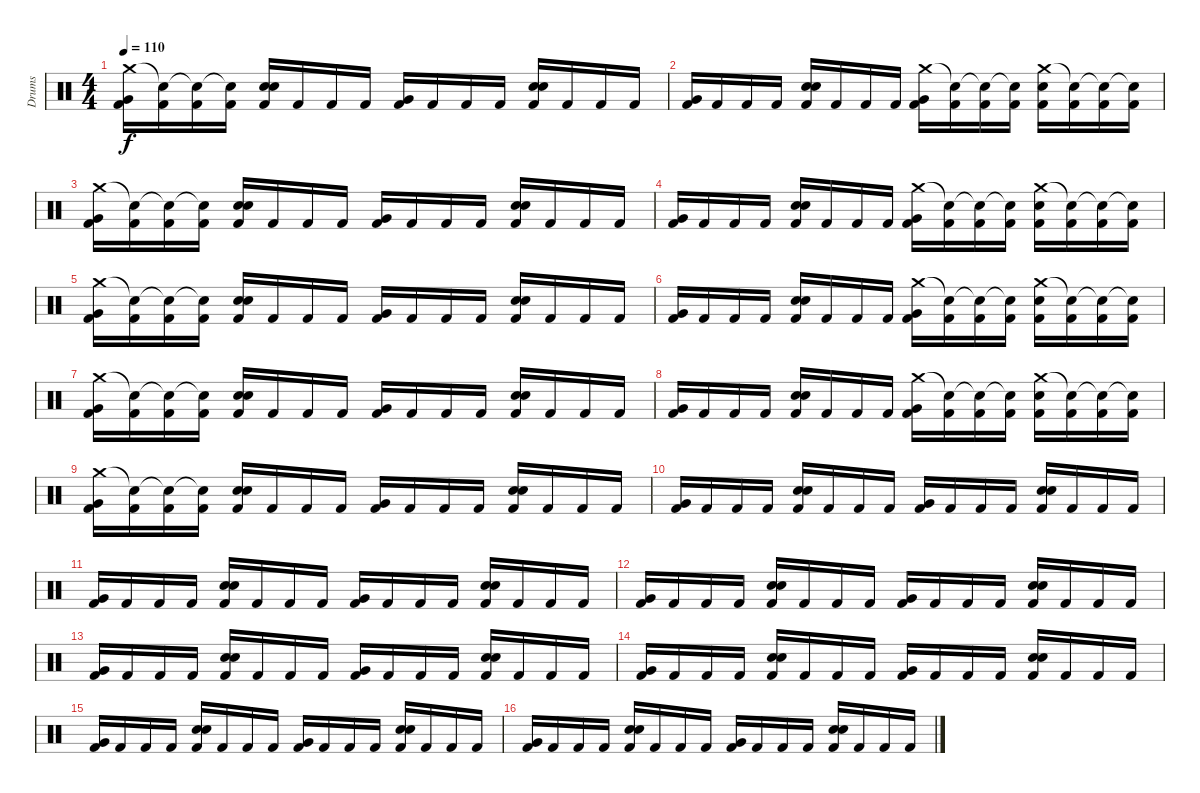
\track ("Drums" "Drums") {instrument percussion}
\staff {score}
\articulation defaults
\ts (4 4)
\tempo 110
\clef neutral
\ks c
("Crash medium (hit)" "Very Low Tom (hit)" "Kick (hit) 2").16{dy f} ("Snare (hit)"{t} "Kick (hit) 2").16 ("Snare (hit)"{t} "Kick (hit) 2").16 ("Snare (hit)"{t} "Kick (hit) 2").16 ("Electric Snare (hit)" "Electric Snare (hit)" "Kick (hit) 2").16 "Kick (hit) 2".16 "Kick (hit) 2".16 "Kick (hit) 2".16 ("Very Low Tom (hit)" "Kick (hit) 2").16 "Kick (hit) 2".16 "Kick (hit) 2".16 "Kick (hit) 2".16 ("Electric Snare (hit)" "Electric Snare (hit)" "Kick (hit) 2").16 "Kick (hit) 2".16 "Kick (hit) 2".16 "Kick (hit) 2".16 |
("Very Low Tom (hit)" "Kick (hit) 2").16 "Kick (hit) 2".16 "Kick (hit) 2".16 "Kick (hit) 2".16 ("Electric Snare (hit)" "Electric Snare (hit)" "Kick (hit) 2").16 "Kick (hit) 2".16 "Kick (hit) 2".16 "Kick (hit) 2".16 ("Crash medium (hit)" "Very Low Tom (hit)" "Kick (hit) 2").16 ("Snare (hit)"{t} "Kick (hit) 2").16 ("Snare (hit)"{t} "Kick (hit) 2").16 ("Snare (hit)"{t} "Kick (hit) 2").16 ("Crash medium (hit)" "Electric Snare (hit)" "Kick (hit) 2").16 ("Snare (hit)"{t} "Kick (hit) 2").16 ("Snare (hit)"{t} "Kick (hit) 2").16 ("Snare (hit)"{t} "Kick (hit) 2").16 |
("Crash medium (hit)" "Very Low Tom (hit)" "Kick (hit) 2").16 ("Snare (hit)"{t} "Kick (hit) 2").16 ("Snare (hit)"{t} "Kick (hit) 2").16 ("Snare (hit)"{t} "Kick (hit) 2").16 ("Electric Snare (hit)" "Electric Snare (hit)" "Kick (hit) 2").16 "Kick (hit) 2".16 "Kick (hit) 2".16 "Kick (hit) 2".16 ("Very Low Tom (hit)" "Kick (hit) 2").16 "Kick (hit) 2".16 "Kick (hit) 2".16 "Kick (hit) 2".16 ("Electric Snare (hit)" "Electric Snare (hit)" "Kick (hit) 2").16 "Kick (hit) 2".16 "Kick (hit) 2".16 "Kick (hit) 2".16 |
("Very Low Tom (hit)" "Kick (hit) 2").16 "Kick (hit) 2".16 "Kick (hit) 2".16 "Kick (hit) 2".16 ("Electric Snare (hit)" "Electric Snare (hit)" "Kick (hit) 2").16 "Kick (hit) 2".16 "Kick (hit) 2".16 "Kick (hit) 2".16 ("Crash medium (hit)" "Very Low Tom (hit)" "Kick (hit) 2").16 ("Snare (hit)"{t} "Kick (hit) 2").16 ("Snare (hit)"{t} "Kick (hit) 2").16 ("Snare (hit)"{t} "Kick (hit) 2").16 ("Crash medium (hit)" "Electric Snare (hit)" "Kick (hit) 2").16 ("Snare (hit)"{t} "Kick (hit) 2").16 ("Snare (hit)"{t} "Kick (hit) 2").16 ("Snare (hit)"{t} "Kick (hit) 2").16 |
("Crash medium (hit)" "Very Low Tom (hit)" "Kick (hit) 2").16 ("Snare (hit)"{t} "Kick (hit) 2").16 ("Snare (hit)"{t} "Kick (hit) 2").16 ("Snare (hit)"{t} "Kick (hit) 2").16 ("Electric Snare (hit)" "Electric Snare (hit)" "Kick (hit) 2").16 "Kick (hit) 2".16 "Kick (hit) 2".16 "Kick (hit) 2".16 ("Very Low Tom (hit)" "Kick (hit) 2").16 "Kick (hit) 2".16 "Kick (hit) 2".16 "Kick (hit) 2".16 ("Electric Snare (hit)" "Electric Snare (hit)" "Kick (hit) 2").16 "Kick (hit) 2".16 "Kick (hit) 2".16 "Kick (hit) 2".16 |
("Very Low Tom (hit)" "Kick (hit) 2").16 "Kick (hit) 2".16 "Kick (hit) 2".16 "Kick (hit) 2".16 ("Electric Snare (hit)" "Electric Snare (hit)" "Kick (hit) 2").16 "Kick (hit) 2".16 "Kick (hit) 2".16 "Kick (hit) 2".16 ("Crash medium (hit)" "Very Low Tom (hit)" "Kick (hit) 2").16 ("Snare (hit)"{t} "Kick (hit) 2").16 ("Snare (hit)"{t} "Kick (hit) 2").16 ("Snare (hit)"{t} "Kick (hit) 2").16 ("Crash medium (hit)" "Electric Snare (hit)" "Kick (hit) 2").16 ("Snare (hit)"{t} "Kick (hit) 2").16 ("Snare (hit)"{t} "Kick (hit) 2").16 ("Snare (hit)"{t} "Kick (hit) 2").16 |
("Crash medium (hit)" "Very Low Tom (hit)" "Kick (hit) 2").16 ("Snare (hit)"{t} "Kick (hit) 2").16 ("Snare (hit)"{t} "Kick (hit) 2").16 ("Snare (hit)"{t} "Kick (hit) 2").16 ("Electric Snare (hit)" "Electric Snare (hit)" "Kick (hit) 2").16 "Kick (hit) 2".16 "Kick (hit) 2".16 "Kick (hit) 2".16 ("Very Low Tom (hit)" "Kick (hit) 2").16 "Kick (hit) 2".16 "Kick (hit) 2".16 "Kick (hit) 2".16 ("Electric Snare (hit)" "Electric Snare (hit)" "Kick (hit) 2").16 "Kick (hit) 2".16 "Kick (hit) 2".16 "Kick (hit) 2".16 |
("Very Low Tom (hit)" "Kick (hit) 2").16 "Kick (hit) 2".16 "Kick (hit) 2".16 "Kick (hit) 2".16 ("Electric Snare (hit)" "Electric Snare (hit)" "Kick (hit) 2").16 "Kick (hit) 2".16 "Kick (hit) 2".16 "Kick (hit) 2".16 ("Crash medium (hit)" "Very Low Tom (hit)" "Kick (hit) 2").16 ("Snare (hit)"{t} "Kick (hit) 2").16 ("Snare (hit)"{t} "Kick (hit) 2").16 ("Snare (hit)"{t} "Kick (hit) 2").16 ("Crash medium (hit)" "Electric Snare (hit)" "Kick (hit) 2").16 ("Snare (hit)"{t} "Kick (hit) 2").16 ("Snare (hit)"{t} "Kick (hit) 2").16 ("Snare (hit)"{t} "Kick (hit) 2").16 |
("Crash medium (hit)" "Very Low Tom (hit)" "Kick (hit) 2").16 ("Snare (hit)"{t} "Kick (hit) 2").16 ("Snare (hit)"{t} "Kick (hit) 2").16 ("Snare (hit)"{t} "Kick (hit) 2").16 ("Electric Snare (hit)" "Electric Snare (hit)" "Kick (hit) 2").16 "Kick (hit) 2".16 "Kick (hit) 2".16 "Kick (hit) 2".16 ("Very Low Tom (hit)" "Kick (hit) 2").16 "Kick (hit) 2".16 "Kick (hit) 2".16 "Kick (hit) 2".16 ("Electric Snare (hit)" "Electric Snare (hit)" "Kick (hit) 2").16 "Kick (hit) 2".16 "Kick (hit) 2".16 "Kick (hit) 2".16 |
("Very Low Tom (hit)" "Kick (hit) 2").16 "Kick (hit) 2".16 "Kick (hit) 2".16 "Kick (hit) 2".16 ("Electric Snare (hit)" "Electric Snare (hit)" "Kick (hit) 2").16 "Kick (hit) 2".16 "Kick (hit) 2".16 "Kick (hit) 2".16 ("Very Low Tom (hit)" "Kick (hit) 2").16 "Kick (hit) 2".16 "Kick (hit) 2".16 "Kick (hit) 2".16 ("Electric Snare (hit)" "Electric Snare (hit)" "Kick (hit) 2").16 "Kick (hit) 2".16 "Kick (hit) 2".16 "Kick (hit) 2".16 |
("Very Low Tom (hit)" "Kick (hit) 2").16 "Kick (hit) 2".16 "Kick (hit) 2".16 "Kick (hit) 2".16 ("Electric Snare (hit)" "Electric Snare (hit)" "Kick (hit) 2").16 "Kick (hit) 2".16 "Kick (hit) 2".16 "Kick (hit) 2".16 ("Very Low Tom (hit)" "Kick (hit) 2").16 "Kick (hit) 2".16 "Kick (hit) 2".16 "Kick (hit) 2".16 ("Electric Snare (hit)" "Electric Snare (hit)" "Kick (hit) 2").16 "Kick (hit) 2".16 "Kick (hit) 2".16 "Kick (hit) 2".16 |
("Very Low Tom (hit)" "Kick (hit) 2").16 "Kick (hit) 2".16 "Kick (hit) 2".16 "Kick (hit) 2".16 ("Electric Snare (hit)" "Electric Snare (hit)" "Kick (hit) 2").16 "Kick (hit) 2".16 "Kick (hit) 2".16 "Kick (hit) 2".16 ("Very Low Tom (hit)" "Kick (hit) 2").16 "Kick (hit) 2".16 "Kick (hit) 2".16 "Kick (hit) 2".16 ("Electric Snare (hit)" "Electric Snare (hit)" "Kick (hit) 2").16 "Kick (hit) 2".16 "Kick (hit) 2".16 "Kick (hit) 2".16 |
("Very Low Tom (hit)" "Kick (hit) 2").16 "Kick (hit) 2".16 "Kick (hit) 2".16 "Kick (hit) 2".16 ("Electric Snare (hit)" "Electric Snare (hit)" "Kick (hit) 2").16 "Kick (hit) 2".16 "Kick (hit) 2".16 "Kick (hit) 2".16 ("Very Low Tom (hit)" "Kick (hit) 2").16 "Kick (hit) 2".16 "Kick (hit) 2".16 "Kick (hit) 2".16 ("Electric Snare (hit)" "Electric Snare (hit)" "Kick (hit) 2").16 "Kick (hit) 2".16 "Kick (hit) 2".16 "Kick (hit) 2".16 |
("Very Low Tom (hit)" "Kick (hit) 2").16 "Kick (hit) 2".16 "Kick (hit) 2".16 "Kick (hit) 2".16 ("Electric Snare (hit)" "Electric Snare (hit)" "Kick (hit) 2").16 "Kick (hit) 2".16 "Kick (hit) 2".16 "Kick (hit) 2".16 ("Very Low Tom (hit)" "Kick (hit) 2").16 "Kick (hit) 2".16 "Kick (hit) 2".16 "Kick (hit) 2".16 ("Electric Snare (hit)" "Electric Snare (hit)" "Kick (hit) 2").16 "Kick (hit) 2".16 "Kick (hit) 2".16 "Kick (hit) 2".16 |
("Very Low Tom (hit)" "Kick (hit) 2").16 "Kick (hit) 2".16 "Kick (hit) 2".16 "Kick (hit) 2".16 ("Electric Snare (hit)" "Electric Snare (hit)" "Kick (hit) 2").16 "Kick (hit) 2".16 "Kick (hit) 2".16 "Kick (hit) 2".16 ("Very Low Tom (hit)" "Kick (hit) 2").16 "Kick (hit) 2".16 "Kick (hit) 2".16 "Kick (hit) 2".16 ("Electric Snare (hit)" "Electric Snare (hit)" "Kick (hit) 2").16 "Kick (hit) 2".16 "Kick (hit) 2".16 "Kick (hit) 2".16 |
("Very Low Tom (hit)" "Kick (hit) 2").16 "Kick (hit) 2".16 "Kick (hit) 2".16 "Kick (hit) 2".16 ("Electric Snare (hit)" "Electric Snare (hit)" "Kick (hit) 2").16 "Kick (hit) 2".16 "Kick (hit) 2".16 "Kick (hit) 2".16 ("Very Low Tom (hit)" "Kick (hit) 2").16 "Kick (hit) 2".16 "Kick (hit) 2".16 "Kick (hit) 2".16 ("Electric Snare (hit)" "Electric Snare (hit)" "Kick (hit) 2").16 "Kick (hit) 2".16 "Kick (hit) 2".16 "Kick (hit) 2".16
